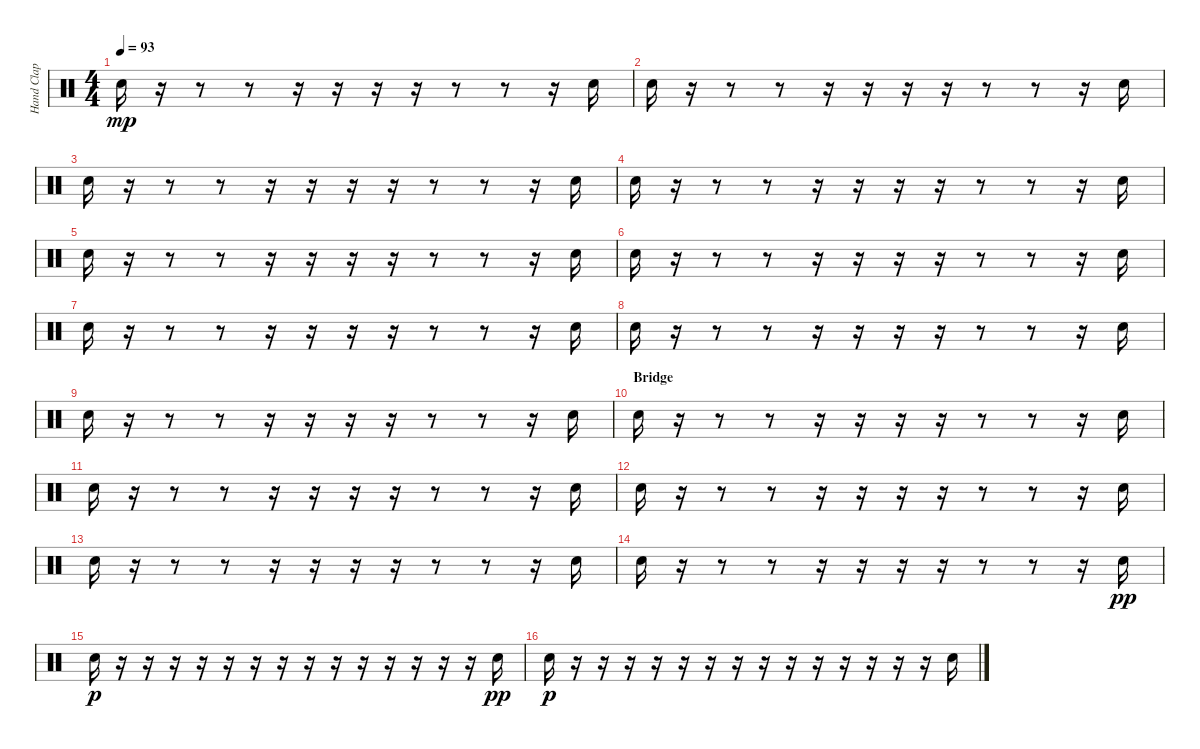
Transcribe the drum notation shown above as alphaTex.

\track ("Hand Clap" "Hand Clap") {instrument percussion}
\staff {score}
\articulation defaults
\ts (4 4)
\tempo 93
\clef neutral
\ks c "Hand Clap (hit)".16{dy mp}
r.16 r.8 r.8 r.16 r.16 r.16 r.16 r.8 r.8 r.16 "Hand Clap (hit)".16 |
"Hand Clap (hit)".16 r.16 r.8 r.8 r.16 r.16 r.16 r.16 r.8 r.8 r.16 "Hand Clap (hit)".16 |
"Hand Clap (hit)".16 r.16 r.8 r.8 r.16 r.16 r.16 r.16 r.8 r.8 r.16 "Hand Clap (hit)".16 |
"Hand Clap (hit)".16 r.16 r.8 r.8 r.16 r.16 r.16 r.16 r.8 r.8 r.16 "Hand Clap (hit)".16 |
"Hand Clap (hit)".16 r.16 r.8 r.8 r.16 r.16 r.16 r.16 r.8 r.8 r.16 "Hand Clap (hit)".16 |
"Hand Clap (hit)".16 r.16 r.8 r.8 r.16 r.16 r.16 r.16 r.8 r.8 r.16 "Hand Clap (hit)".16 |
"Hand Clap (hit)".16 r.16 r.8 r.8 r.16 r.16 r.16 r.16 r.8 r.8 r.16 "Hand Clap (hit)".16 |
"Hand Clap (hit)".16 r.16 r.8 r.8 r.16 r.16 r.16 r.16 r.8 r.8 r.16 "Hand Clap (hit)".16 |
"Hand Clap (hit)".16 r.16 r.8 r.8 r.16 r.16 r.16 r.16 r.8 r.8 r.16 "Hand Clap (hit)".16 |
\section ("" "Bridge")
"Hand Clap (hit)".16 r.16 r.8 r.8 r.16 r.16 r.16 r.16 r.8 r.8 r.16 "Hand Clap (hit)".16 |
"Hand Clap (hit)".16 r.16 r.8 r.8 r.16 r.16 r.16 r.16 r.8 r.8 r.16 "Hand Clap (hit)".16 |
"Hand Clap (hit)".16 r.16 r.8 r.8 r.16 r.16 r.16 r.16 r.8 r.8 r.16 "Hand Clap (hit)".16 |
"Hand Clap (hit)".16 r.16 r.8 r.8 r.16 r.16 r.16 r.16 r.8 r.8 r.16 "Hand Clap (hit)".16 |
"Hand Clap (hit)".16 r.16 r.8 r.8 r.16 r.16 r.16 r.16 r.8 r.8 r.16 "Hand Clap (hit)".16{dy pp} |
"Hand Clap (hit)".16{dy p} r.16 r.16 r.16 r.16 r.16 r.16 r.16 r.16 r.16 r.16 r.16 r.16 r.16 r.16 "Hand Clap (hit)".16{dy pp} |
"Hand Clap (hit)".16{dy p} r.16 r.16 r.16 r.16 r.16 r.16 r.16 r.16 r.16 r.16 r.16 r.16 r.16 r.16 "Hand Clap (hit)".16
